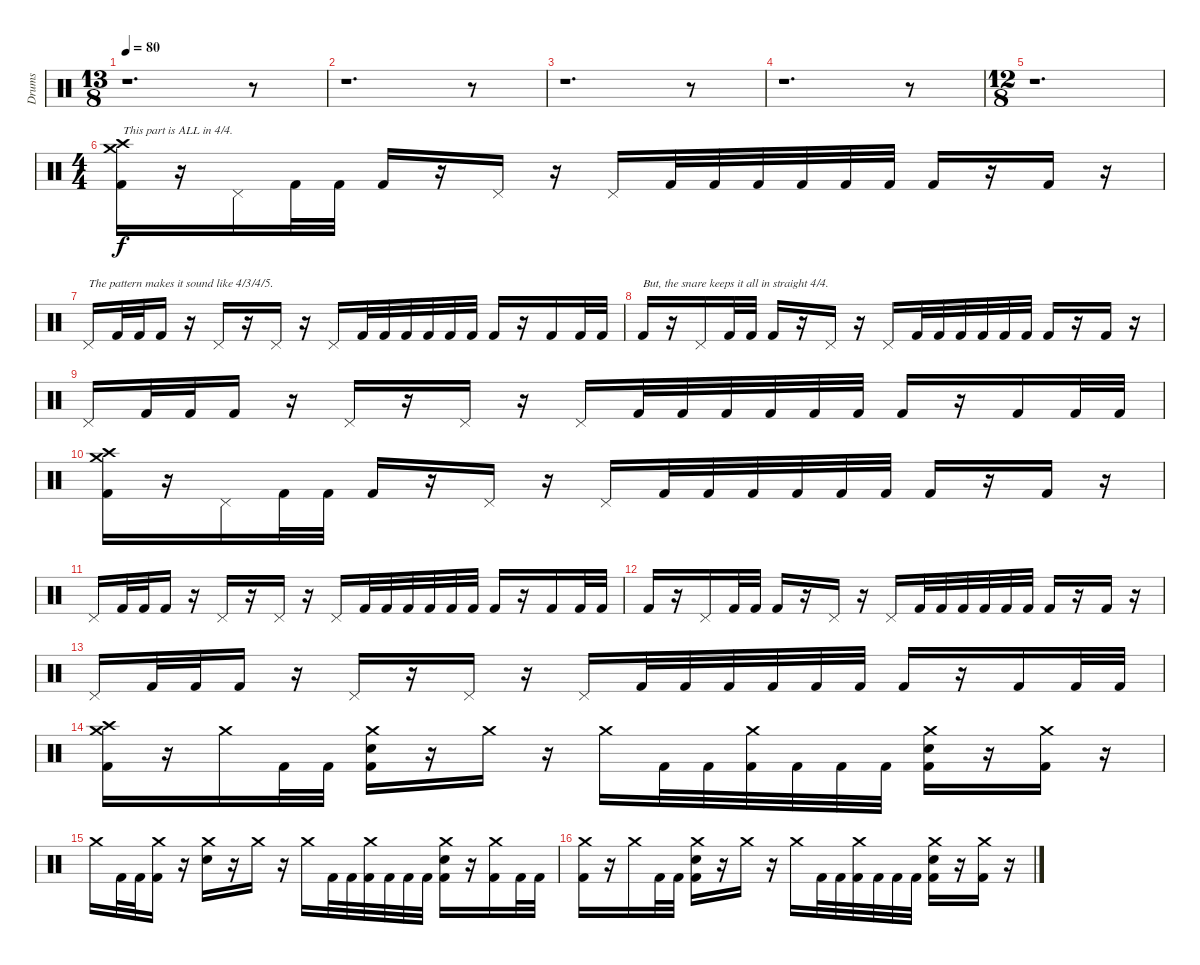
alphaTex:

\track ("Drums" "Drums") {instrument percussion}
\staff {score}
\articulation defaults
\ts (13 8)
\tempo 80
\clef neutral
\ks c
r.1{d dy f} r.8 |
r.1{d} r.8 |
r.1{d} r.8 |
r.1{d} r.8 |
\ts (12 8)
r.1{d} |
\ts (4 4)
("Crash high (hit)" "Crash medium (hit)" "Kick (hit) 2").16{txt "This part is ALL in 4/4."} r.16 "Pedal Hi-Hat (hit)".16 "Kick (hit) 2".32 "Kick (hit) 2".32 "Kick (hit) 2".16 r.16 "Pedal Hi-Hat (hit)".16 r.16 "Pedal Hi-Hat (hit)".16 "Kick (hit) 2".32 "Kick (hit) 2".32 "Kick (hit) 2".32 "Kick (hit) 2".32 "Kick (hit) 2".32 "Kick (hit) 2".32 "Kick (hit) 2".16 r.16 "Kick (hit) 2".16 r.16 |
"Pedal Hi-Hat (hit)".16{txt "The pattern makes it sound like 4/3/4/5."} "Kick (hit) 2".32 "Kick (hit) 2".32 "Kick (hit) 2".16 r.16 "Pedal Hi-Hat (hit)".16 r.16 "Pedal Hi-Hat (hit)".16 r.16 "Pedal Hi-Hat (hit)".16 "Kick (hit) 2".32 "Kick (hit) 2".32 "Kick (hit) 2".32 "Kick (hit) 2".32 "Kick (hit) 2".32 "Kick (hit) 2".32 "Kick (hit) 2".16 r.16 "Kick (hit) 2".16 "Kick (hit) 2".32 "Kick (hit) 2".32 |
"Kick (hit) 2".16{txt "But, the snare keeps it all in straight 4/4."} r.16 "Pedal Hi-Hat (hit)".16 "Kick (hit) 2".32 "Kick (hit) 2".32 "Kick (hit) 2".16 r.16 "Pedal Hi-Hat (hit)".16 r.16 "Pedal Hi-Hat (hit)".16 "Kick (hit) 2".32 "Kick (hit) 2".32 "Kick (hit) 2".32 "Kick (hit) 2".32 "Kick (hit) 2".32 "Kick (hit) 2".32 "Kick (hit) 2".16 r.16 "Kick (hit) 2".16 r.16 |
"Pedal Hi-Hat (hit)".16 "Kick (hit) 2".32 "Kick (hit) 2".32 "Kick (hit) 2".16 r.16 "Pedal Hi-Hat (hit)".16 r.16 "Pedal Hi-Hat (hit)".16 r.16 "Pedal Hi-Hat (hit)".16 "Kick (hit) 2".32 "Kick (hit) 2".32 "Kick (hit) 2".32 "Kick (hit) 2".32 "Kick (hit) 2".32 "Kick (hit) 2".32 "Kick (hit) 2".16 r.16 "Kick (hit) 2".16 "Kick (hit) 2".32 "Kick (hit) 2".32 |
("Crash high (hit)" "Crash medium (hit)" "Kick (hit) 2").16 r.16 "Pedal Hi-Hat (hit)".16 "Kick (hit) 2".32 "Kick (hit) 2".32 "Kick (hit) 2".16 r.16 "Pedal Hi-Hat (hit)".16 r.16 "Pedal Hi-Hat (hit)".16 "Kick (hit) 2".32 "Kick (hit) 2".32 "Kick (hit) 2".32 "Kick (hit) 2".32 "Kick (hit) 2".32 "Kick (hit) 2".32 "Kick (hit) 2".16 r.16 "Kick (hit) 2".16 r.16 |
"Pedal Hi-Hat (hit)".16 "Kick (hit) 2".32 "Kick (hit) 2".32 "Kick (hit) 2".16 r.16 "Pedal Hi-Hat (hit)".16 r.16 "Pedal Hi-Hat (hit)".16 r.16 "Pedal Hi-Hat (hit)".16 "Kick (hit) 2".32 "Kick (hit) 2".32 "Kick (hit) 2".32 "Kick (hit) 2".32 "Kick (hit) 2".32 "Kick (hit) 2".32 "Kick (hit) 2".16 r.16 "Kick (hit) 2".16 "Kick (hit) 2".32 "Kick (hit) 2".32 |
"Kick (hit) 2".16 r.16 "Pedal Hi-Hat (hit)".16 "Kick (hit) 2".32 "Kick (hit) 2".32 "Kick (hit) 2".16 r.16 "Pedal Hi-Hat (hit)".16 r.16 "Pedal Hi-Hat (hit)".16 "Kick (hit) 2".32 "Kick (hit) 2".32 "Kick (hit) 2".32 "Kick (hit) 2".32 "Kick (hit) 2".32 "Kick (hit) 2".32 "Kick (hit) 2".16 r.16 "Kick (hit) 2".16 r.16 |
"Pedal Hi-Hat (hit)".16 "Kick (hit) 2".32 "Kick (hit) 2".32 "Kick (hit) 2".16 r.16 "Pedal Hi-Hat (hit)".16 r.16 "Pedal Hi-Hat (hit)".16 r.16 "Pedal Hi-Hat (hit)".16 "Kick (hit) 2".32 "Kick (hit) 2".32 "Kick (hit) 2".32 "Kick (hit) 2".32 "Kick (hit) 2".32 "Kick (hit) 2".32 "Kick (hit) 2".16 r.16 "Kick (hit) 2".16 "Kick (hit) 2".32 "Kick (hit) 2".32 |
("Crash medium (hit)" "Crash high (hit)" "Kick (hit) 2").16 r.16 "Crash medium (hit)".16 "Kick (hit) 2".32 "Kick (hit) 2".32 ("Crash medium (hit)" "Snare (hit) 2" "Kick (hit) 2").16 r.16 "Crash medium (hit)".16 r.16 "Crash medium (hit)".16 "Kick (hit) 2".32 "Kick (hit) 2".32 ("Crash medium (hit)" "Kick (hit) 2").32 "Kick (hit) 2".32 "Kick (hit) 2".32 "Kick (hit) 2".32 ("Crash medium (hit)" "Snare (hit) 2" "Kick (hit) 2").16 r.16 ("Crash medium (hit)" "Kick (hit) 2").16 r.16 |
"Crash medium (hit)".16 "Kick (hit) 2".32 "Kick (hit) 2".32 ("Crash medium (hit)" "Kick (hit) 2").16 r.16 ("Crash medium (hit)" "Snare (hit) 2").16 r.16 "Crash medium (hit)".16 r.16 "Crash medium (hit)".16 "Kick (hit) 2".32 "Kick (hit) 2".32 ("Crash medium (hit)" "Kick (hit) 2").32 "Kick (hit) 2".32 "Kick (hit) 2".32 "Kick (hit) 2".32 ("Crash medium (hit)" "Snare (hit) 2" "Kick (hit) 2").16 r.16 ("Crash medium (hit)" "Kick (hit) 2").16 "Kick (hit) 2".32 "Kick (hit) 2".32 |
("Crash medium (hit)" "Kick (hit) 2").16 r.16 "Crash medium (hit)".16 "Kick (hit) 2".32 "Kick (hit) 2".32 ("Crash medium (hit)" "Snare (hit) 2" "Kick (hit) 2").16 r.16 "Crash medium (hit)".16 r.16 "Crash medium (hit)".16 "Kick (hit) 2".32 "Kick (hit) 2".32 ("Crash medium (hit)" "Kick (hit) 2").32 "Kick (hit) 2".32 "Kick (hit) 2".32 "Kick (hit) 2".32 ("Crash medium (hit)" "Snare (hit) 2" "Kick (hit) 2").16 r.16 ("Crash medium (hit)" "Kick (hit) 2").16 r.16
